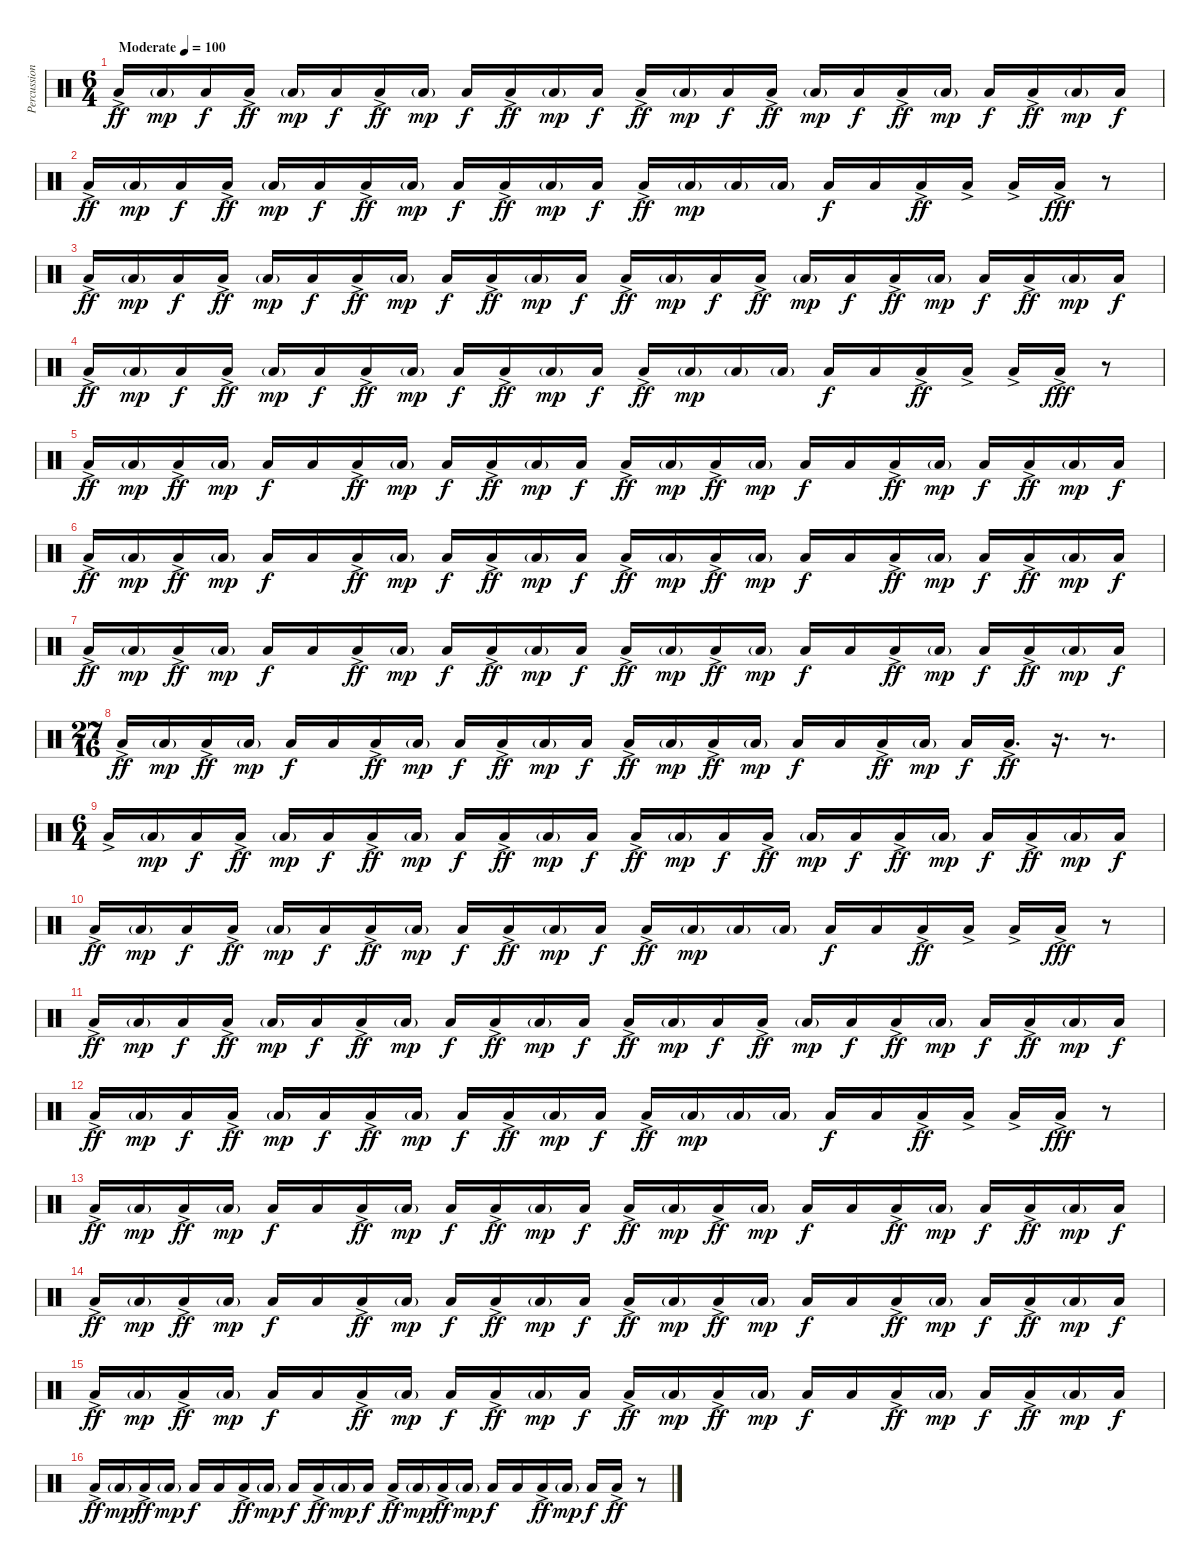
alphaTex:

\track ("Percussions" "Percussion") {instrument percussion}
\staff {score}
\articulation defaults
\ts (6 4)
\tempo (100 "Moderate")
\clef neutral
\ks c "Low Floor Tom (hit)"{ac}.16{dy ff} "Low Floor Tom (hit)"{g}.16{dy mp} "Low Floor Tom (hit)".16{dy f} "Low Floor Tom (hit)"{ac}.16{dy ff} "Low Floor Tom (hit)"{g}.16{dy mp} "Low Floor Tom (hit)".16{dy f} "Low Floor Tom (hit)"{ac}.16{dy ff} "Low Floor Tom (hit)"{g}.16{dy mp} "Low Floor Tom (hit)".16{dy f} "Low Floor Tom (hit)"{ac}.16{dy ff} "Low Floor Tom (hit)"{g}.16{dy mp} "Low Floor Tom (hit)".16{dy f} "Low Floor Tom (hit)"{ac}.16{dy ff} "Low Floor Tom (hit)"{g}.16{dy mp} "Low Floor Tom (hit)".16{dy f} "Low Floor Tom (hit)"{ac}.16{dy ff} "Low Floor Tom (hit)"{g}.16{dy mp} "Low Floor Tom (hit)".16{dy f} "Low Floor Tom (hit)"{ac}.16{dy ff} "Low Floor Tom (hit)"{g}.16{dy mp} "Low Floor Tom (hit)".16{dy f} "Low Floor Tom (hit)"{ac}.16{dy ff} "Low Floor Tom (hit)"{g}.16{dy mp} "Low Floor Tom (hit)".16{dy f}
|
"Low Floor Tom (hit)"{ac}.16{dy ff} "Low Floor Tom (hit)"{g}.16{dy mp} "Low Floor Tom (hit)".16{dy f} "Low Floor Tom (hit)"{ac}.16{dy ff} "Low Floor Tom (hit)"{g}.16{dy mp} "Low Floor Tom (hit)".16{dy f} "Low Floor Tom (hit)"{ac}.16{dy ff} "Low Floor Tom (hit)"{g}.16{dy mp} "Low Floor Tom (hit)".16{dy f} "Low Floor Tom (hit)"{ac}.16{dy ff} "Low Floor Tom (hit)"{g}.16{dy mp} "Low Floor Tom (hit)".16{dy f} "Low Floor Tom (hit)"{ac}.16{dy ff} "Low Floor Tom (hit)"{g}.16{dy mp} "Low Floor Tom (hit)"{g}.16 "Low Floor Tom (hit)"{g}.16 "Low Floor Tom (hit)".16{dy f} "Low Floor Tom (hit)".16 "Low Floor Tom (hit)"{ac}.16{dy ff} "Low Floor Tom (hit)"{ac}.16 "Low Floor Tom (hit)"{ac}.16 "Low Floor Tom (hit)"{ac}.16{dy fff} r.8 |
"Low Floor Tom (hit)"{ac}.16{dy ff} "Low Floor Tom (hit)"{g}.16{dy mp} "Low Floor Tom (hit)".16{dy f} "Low Floor Tom (hit)"{ac}.16{dy ff} "Low Floor Tom (hit)"{g}.16{dy mp} "Low Floor Tom (hit)".16{dy f} "Low Floor Tom (hit)"{ac}.16{dy ff} "Low Floor Tom (hit)"{g}.16{dy mp} "Low Floor Tom (hit)".16{dy f} "Low Floor Tom (hit)"{ac}.16{dy ff} "Low Floor Tom (hit)"{g}.16{dy mp} "Low Floor Tom (hit)".16{dy f} "Low Floor Tom (hit)"{ac}.16{dy ff} "Low Floor Tom (hit)"{g}.16{dy mp} "Low Floor Tom (hit)".16{dy f} "Low Floor Tom (hit)"{ac}.16{dy ff} "Low Floor Tom (hit)"{g}.16{dy mp} "Low Floor Tom (hit)".16{dy f} "Low Floor Tom (hit)"{ac}.16{dy ff} "Low Floor Tom (hit)"{g}.16{dy mp} "Low Floor Tom (hit)".16{dy f} "Low Floor Tom (hit)"{ac}.16{dy ff} "Low Floor Tom (hit)"{g}.16{dy mp} "Low Floor Tom (hit)".16{dy f} |
"Low Floor Tom (hit)"{ac}.16{dy ff} "Low Floor Tom (hit)"{g}.16{dy mp} "Low Floor Tom (hit)".16{dy f} "Low Floor Tom (hit)"{ac}.16{dy ff} "Low Floor Tom (hit)"{g}.16{dy mp} "Low Floor Tom (hit)".16{dy f} "Low Floor Tom (hit)"{ac}.16{dy ff} "Low Floor Tom (hit)"{g}.16{dy mp} "Low Floor Tom (hit)".16{dy f} "Low Floor Tom (hit)"{ac}.16{dy ff} "Low Floor Tom (hit)"{g}.16{dy mp} "Low Floor Tom (hit)".16{dy f} "Low Floor Tom (hit)"{ac}.16{dy ff} "Low Floor Tom (hit)"{g}.16{dy mp} "Low Floor Tom (hit)"{g}.16 "Low Floor Tom (hit)"{g}.16 "Low Floor Tom (hit)".16{dy f} "Low Floor Tom (hit)".16 "Low Floor Tom (hit)"{ac}.16{dy ff} "Low Floor Tom (hit)"{ac}.16 "Low Floor Tom (hit)"{ac}.16 "Low Floor Tom (hit)"{ac}.16{dy fff} r.8 |
"Low Floor Tom (hit)"{ac}.16{dy ff} "Low Floor Tom (hit)"{g}.16{dy mp} "Low Floor Tom (hit)"{ac}.16{dy ff} "Low Floor Tom (hit)"{g}.16{dy mp} "Low Floor Tom (hit)".16{dy f} "Low Floor Tom (hit)".16 "Low Floor Tom (hit)"{ac}.16{dy ff} "Low Floor Tom (hit)"{g}.16{dy mp} "Low Floor Tom (hit)".16{dy f} "Low Floor Tom (hit)"{ac}.16{dy ff} "Low Floor Tom (hit)"{g}.16{dy mp} "Low Floor Tom (hit)".16{dy f} "Low Floor Tom (hit)"{ac}.16{dy ff} "Low Floor Tom (hit)"{g}.16{dy mp} "Low Floor Tom (hit)"{ac}.16{dy ff} "Low Floor Tom (hit)"{g}.16{dy mp} "Low Floor Tom (hit)".16{dy f} "Low Floor Tom (hit)".16 "Low Floor Tom (hit)"{ac}.16{dy ff} "Low Floor Tom (hit)"{g}.16{dy mp} "Low Floor Tom (hit)".16{dy f} "Low Floor Tom (hit)"{ac}.16{dy ff} "Low Floor Tom (hit)"{g}.16{dy mp} "Low Floor Tom (hit)".16{dy f} |
"Low Floor Tom (hit)"{ac}.16{dy ff} "Low Floor Tom (hit)"{g}.16{dy mp} "Low Floor Tom (hit)"{ac}.16{dy ff} "Low Floor Tom (hit)"{g}.16{dy mp} "Low Floor Tom (hit)".16{dy f} "Low Floor Tom (hit)".16 "Low Floor Tom (hit)"{ac}.16{dy ff} "Low Floor Tom (hit)"{g}.16{dy mp} "Low Floor Tom (hit)".16{dy f} "Low Floor Tom (hit)"{ac}.16{dy ff} "Low Floor Tom (hit)"{g}.16{dy mp} "Low Floor Tom (hit)".16{dy f} "Low Floor Tom (hit)"{ac}.16{dy ff} "Low Floor Tom (hit)"{g}.16{dy mp} "Low Floor Tom (hit)"{ac}.16{dy ff} "Low Floor Tom (hit)"{g}.16{dy mp} "Low Floor Tom (hit)".16{dy f} "Low Floor Tom (hit)".16 "Low Floor Tom (hit)"{ac}.16{dy ff} "Low Floor Tom (hit)"{g}.16{dy mp} "Low Floor Tom (hit)".16{dy f} "Low Floor Tom (hit)"{ac}.16{dy ff} "Low Floor Tom (hit)"{g}.16{dy mp} "Low Floor Tom (hit)".16{dy f} |
"Low Floor Tom (hit)"{ac}.16{dy ff} "Low Floor Tom (hit)"{g}.16{dy mp} "Low Floor Tom (hit)"{ac}.16{dy ff} "Low Floor Tom (hit)"{g}.16{dy mp} "Low Floor Tom (hit)".16{dy f} "Low Floor Tom (hit)".16 "Low Floor Tom (hit)"{ac}.16{dy ff} "Low Floor Tom (hit)"{g}.16{dy mp} "Low Floor Tom (hit)".16{dy f} "Low Floor Tom (hit)"{ac}.16{dy ff} "Low Floor Tom (hit)"{g}.16{dy mp} "Low Floor Tom (hit)".16{dy f} "Low Floor Tom (hit)"{ac}.16{dy ff} "Low Floor Tom (hit)"{g}.16{dy mp} "Low Floor Tom (hit)"{ac}.16{dy ff} "Low Floor Tom (hit)"{g}.16{dy mp} "Low Floor Tom (hit)".16{dy f} "Low Floor Tom (hit)".16 "Low Floor Tom (hit)"{ac}.16{dy ff} "Low Floor Tom (hit)"{g}.16{dy mp} "Low Floor Tom (hit)".16{dy f} "Low Floor Tom (hit)"{ac}.16{dy ff} "Low Floor Tom (hit)"{g}.16{dy mp} "Low Floor Tom (hit)".16{dy f} |
\ts (27 16)
"Low Floor Tom (hit)"{ac}.16{dy ff} "Low Floor Tom (hit)"{g}.16{dy mp} "Low Floor Tom (hit)"{ac}.16{dy ff} "Low Floor Tom (hit)"{g}.16{dy mp} "Low Floor Tom (hit)".16{dy f} "Low Floor Tom (hit)".16 "Low Floor Tom (hit)"{ac}.16{dy ff} "Low Floor Tom (hit)"{g}.16{dy mp} "Low Floor Tom (hit)".16{dy f} "Low Floor Tom (hit)"{ac}.16{dy ff} "Low Floor Tom (hit)"{g}.16{dy mp} "Low Floor Tom (hit)".16{dy f} "Low Floor Tom (hit)"{ac}.16{dy ff} "Low Floor Tom (hit)"{g}.16{dy mp} "Low Floor Tom (hit)"{ac}.16{dy ff} "Low Floor Tom (hit)"{g}.16{dy mp} "Low Floor Tom (hit)".16{dy f} "Low Floor Tom (hit)".16 "Low Floor Tom (hit)"{ac}.16{dy ff} "Low Floor Tom (hit)"{g}.16{dy mp} "Low Floor Tom (hit)".16{dy f} "Low Floor Tom (hit)"{ac}.16{d dy ff} r.16{d} r.8{d} |
\ts (6 4)
"Low Floor Tom (hit)"{ac}.16 "Low Floor Tom (hit)"{g}.16{dy mp} "Low Floor Tom (hit)".16{dy f} "Low Floor Tom (hit)"{ac}.16{dy ff} "Low Floor Tom (hit)"{g}.16{dy mp} "Low Floor Tom (hit)".16{dy f} "Low Floor Tom (hit)"{ac}.16{dy ff} "Low Floor Tom (hit)"{g}.16{dy mp} "Low Floor Tom (hit)".16{dy f} "Low Floor Tom (hit)"{ac}.16{dy ff} "Low Floor Tom (hit)"{g}.16{dy mp} "Low Floor Tom (hit)".16{dy f} "Low Floor Tom (hit)"{ac}.16{dy ff} "Low Floor Tom (hit)"{g}.16{dy mp} "Low Floor Tom (hit)".16{dy f} "Low Floor Tom (hit)"{ac}.16{dy ff} "Low Floor Tom (hit)"{g}.16{dy mp} "Low Floor Tom (hit)".16{dy f} "Low Floor Tom (hit)"{ac}.16{dy ff} "Low Floor Tom (hit)"{g}.16{dy mp} "Low Floor Tom (hit)".16{dy f} "Low Floor Tom (hit)"{ac}.16{dy ff} "Low Floor Tom (hit)"{g}.16{dy mp} "Low Floor Tom (hit)".16{dy f} |
"Low Floor Tom (hit)"{ac}.16{dy ff} "Low Floor Tom (hit)"{g}.16{dy mp} "Low Floor Tom (hit)".16{dy f} "Low Floor Tom (hit)"{ac}.16{dy ff} "Low Floor Tom (hit)"{g}.16{dy mp} "Low Floor Tom (hit)".16{dy f} "Low Floor Tom (hit)"{ac}.16{dy ff} "Low Floor Tom (hit)"{g}.16{dy mp} "Low Floor Tom (hit)".16{dy f} "Low Floor Tom (hit)"{ac}.16{dy ff} "Low Floor Tom (hit)"{g}.16{dy mp} "Low Floor Tom (hit)".16{dy f} "Low Floor Tom (hit)"{ac}.16{dy ff} "Low Floor Tom (hit)"{g}.16{dy mp} "Low Floor Tom (hit)"{g}.16 "Low Floor Tom (hit)"{g}.16 "Low Floor Tom (hit)".16{dy f} "Low Floor Tom (hit)".16 "Low Floor Tom (hit)"{ac}.16{dy ff} "Low Floor Tom (hit)"{ac}.16 "Low Floor Tom (hit)"{ac}.16 "Low Floor Tom (hit)"{ac}.16{dy fff} r.8 |
"Low Floor Tom (hit)"{ac}.16{dy ff} "Low Floor Tom (hit)"{g}.16{dy mp} "Low Floor Tom (hit)".16{dy f} "Low Floor Tom (hit)"{ac}.16{dy ff} "Low Floor Tom (hit)"{g}.16{dy mp} "Low Floor Tom (hit)".16{dy f} "Low Floor Tom (hit)"{ac}.16{dy ff} "Low Floor Tom (hit)"{g}.16{dy mp} "Low Floor Tom (hit)".16{dy f} "Low Floor Tom (hit)"{ac}.16{dy ff} "Low Floor Tom (hit)"{g}.16{dy mp} "Low Floor Tom (hit)".16{dy f} "Low Floor Tom (hit)"{ac}.16{dy ff} "Low Floor Tom (hit)"{g}.16{dy mp} "Low Floor Tom (hit)".16{dy f} "Low Floor Tom (hit)"{ac}.16{dy ff} "Low Floor Tom (hit)"{g}.16{dy mp} "Low Floor Tom (hit)".16{dy f} "Low Floor Tom (hit)"{ac}.16{dy ff} "Low Floor Tom (hit)"{g}.16{dy mp} "Low Floor Tom (hit)".16{dy f} "Low Floor Tom (hit)"{ac}.16{dy ff} "Low Floor Tom (hit)"{g}.16{dy mp} "Low Floor Tom (hit)".16{dy f} |
"Low Floor Tom (hit)"{ac}.16{dy ff} "Low Floor Tom (hit)"{g}.16{dy mp} "Low Floor Tom (hit)".16{dy f} "Low Floor Tom (hit)"{ac}.16{dy ff} "Low Floor Tom (hit)"{g}.16{dy mp} "Low Floor Tom (hit)".16{dy f} "Low Floor Tom (hit)"{ac}.16{dy ff} "Low Floor Tom (hit)"{g}.16{dy mp} "Low Floor Tom (hit)".16{dy f} "Low Floor Tom (hit)"{ac}.16{dy ff} "Low Floor Tom (hit)"{g}.16{dy mp} "Low Floor Tom (hit)".16{dy f} "Low Floor Tom (hit)"{ac}.16{dy ff} "Low Floor Tom (hit)"{g}.16{dy mp} "Low Floor Tom (hit)"{g}.16 "Low Floor Tom (hit)"{g}.16 "Low Floor Tom (hit)".16{dy f} "Low Floor Tom (hit)".16 "Low Floor Tom (hit)"{ac}.16{dy ff} "Low Floor Tom (hit)"{ac}.16 "Low Floor Tom (hit)"{ac}.16 "Low Floor Tom (hit)"{ac}.16{dy fff} r.8 |
"Low Floor Tom (hit)"{ac}.16{dy ff} "Low Floor Tom (hit)"{g}.16{dy mp} "Low Floor Tom (hit)"{ac}.16{dy ff} "Low Floor Tom (hit)"{g}.16{dy mp} "Low Floor Tom (hit)".16{dy f} "Low Floor Tom (hit)".16 "Low Floor Tom (hit)"{ac}.16{dy ff} "Low Floor Tom (hit)"{g}.16{dy mp} "Low Floor Tom (hit)".16{dy f} "Low Floor Tom (hit)"{ac}.16{dy ff} "Low Floor Tom (hit)"{g}.16{dy mp} "Low Floor Tom (hit)".16{dy f} "Low Floor Tom (hit)"{ac}.16{dy ff} "Low Floor Tom (hit)"{g}.16{dy mp} "Low Floor Tom (hit)"{ac}.16{dy ff} "Low Floor Tom (hit)"{g}.16{dy mp} "Low Floor Tom (hit)".16{dy f} "Low Floor Tom (hit)".16 "Low Floor Tom (hit)"{ac}.16{dy ff} "Low Floor Tom (hit)"{g}.16{dy mp} "Low Floor Tom (hit)".16{dy f} "Low Floor Tom (hit)"{ac}.16{dy ff} "Low Floor Tom (hit)"{g}.16{dy mp} "Low Floor Tom (hit)".16{dy f} |
"Low Floor Tom (hit)"{ac}.16{dy ff} "Low Floor Tom (hit)"{g}.16{dy mp} "Low Floor Tom (hit)"{ac}.16{dy ff} "Low Floor Tom (hit)"{g}.16{dy mp} "Low Floor Tom (hit)".16{dy f} "Low Floor Tom (hit)".16 "Low Floor Tom (hit)"{ac}.16{dy ff} "Low Floor Tom (hit)"{g}.16{dy mp} "Low Floor Tom (hit)".16{dy f} "Low Floor Tom (hit)"{ac}.16{dy ff} "Low Floor Tom (hit)"{g}.16{dy mp} "Low Floor Tom (hit)".16{dy f} "Low Floor Tom (hit)"{ac}.16{dy ff} "Low Floor Tom (hit)"{g}.16{dy mp} "Low Floor Tom (hit)"{ac}.16{dy ff} "Low Floor Tom (hit)"{g}.16{dy mp} "Low Floor Tom (hit)".16{dy f} "Low Floor Tom (hit)".16 "Low Floor Tom (hit)"{ac}.16{dy ff} "Low Floor Tom (hit)"{g}.16{dy mp} "Low Floor Tom (hit)".16{dy f} "Low Floor Tom (hit)"{ac}.16{dy ff} "Low Floor Tom (hit)"{g}.16{dy mp} "Low Floor Tom (hit)".16{dy f} |
"Low Floor Tom (hit)"{ac}.16{dy ff} "Low Floor Tom (hit)"{g}.16{dy mp} "Low Floor Tom (hit)"{ac}.16{dy ff} "Low Floor Tom (hit)"{g}.16{dy mp} "Low Floor Tom (hit)".16{dy f} "Low Floor Tom (hit)".16 "Low Floor Tom (hit)"{ac}.16{dy ff} "Low Floor Tom (hit)"{g}.16{dy mp} "Low Floor Tom (hit)".16{dy f} "Low Floor Tom (hit)"{ac}.16{dy ff} "Low Floor Tom (hit)"{g}.16{dy mp} "Low Floor Tom (hit)".16{dy f} "Low Floor Tom (hit)"{ac}.16{dy ff} "Low Floor Tom (hit)"{g}.16{dy mp} "Low Floor Tom (hit)"{ac}.16{dy ff} "Low Floor Tom (hit)"{g}.16{dy mp} "Low Floor Tom (hit)".16{dy f} "Low Floor Tom (hit)".16 "Low Floor Tom (hit)"{ac}.16{dy ff} "Low Floor Tom (hit)"{g}.16{dy mp} "Low Floor Tom (hit)".16{dy f} "Low Floor Tom (hit)"{ac}.16{dy ff} "Low Floor Tom (hit)"{g}.16{dy mp} "Low Floor Tom (hit)".16{dy f} |
"Low Floor Tom (hit)"{ac}.16{dy ff} "Low Floor Tom (hit)"{g}.16{dy mp} "Low Floor Tom (hit)"{ac}.16{dy ff} "Low Floor Tom (hit)"{g}.16{dy mp} "Low Floor Tom (hit)".16{dy f} "Low Floor Tom (hit)".16 "Low Floor Tom (hit)"{ac}.16{dy ff} "Low Floor Tom (hit)"{g}.16{dy mp} "Low Floor Tom (hit)".16{dy f} "Low Floor Tom (hit)"{ac}.16{dy ff} "Low Floor Tom (hit)"{g}.16{dy mp} "Low Floor Tom (hit)".16{dy f} "Low Floor Tom (hit)"{ac}.16{dy ff} "Low Floor Tom (hit)"{g}.16{dy mp} "Low Floor Tom (hit)"{ac}.16{dy ff} "Low Floor Tom (hit)"{g}.16{dy mp} "Low Floor Tom (hit)".16{dy f} "Low Floor Tom (hit)".16 "Low Floor Tom (hit)"{ac}.16{dy ff} "Low Floor Tom (hit)"{g}.16{dy mp} "Low Floor Tom (hit)".16{dy f} "Low Floor Tom (hit)"{ac}.16{dy ff} r.8
